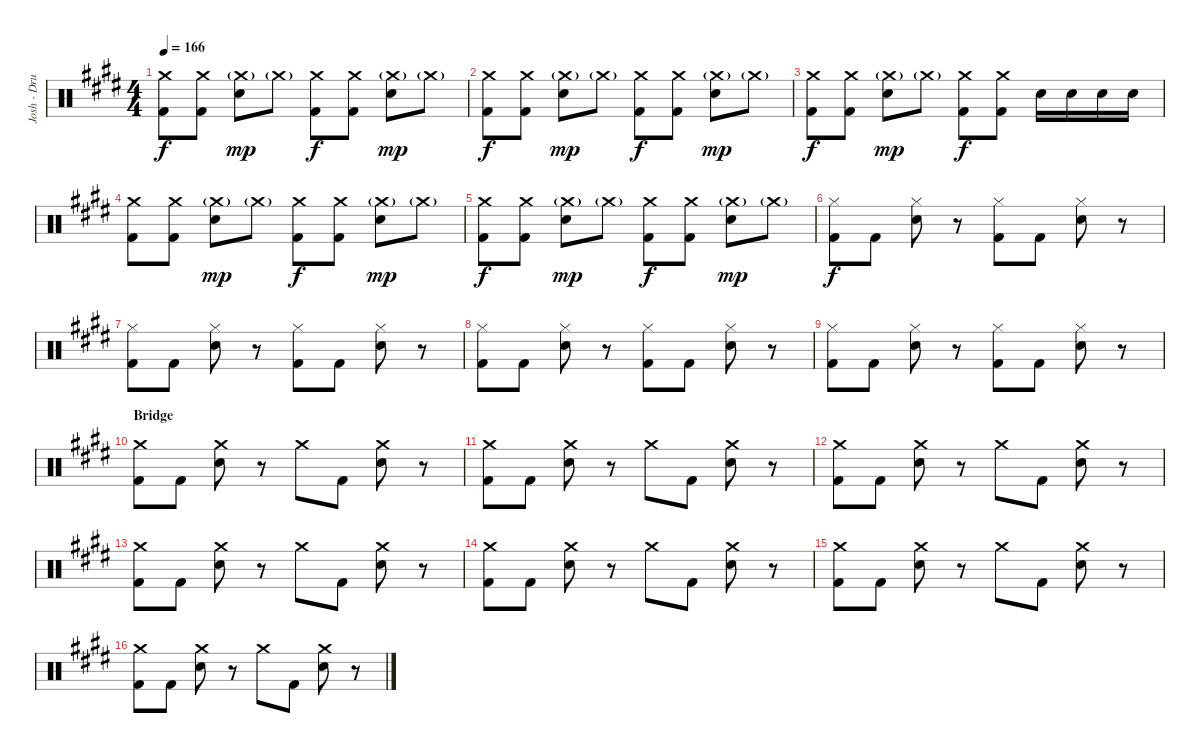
\track ("Josh - Drums" "Josh - Dru") {instrument percussion}
\staff {score}
\articulation defaults
\ts (4 4)
\tempo 166
\clef neutral
\ks e
("Crash medium (hit)" "Kick (hit) 2").8{dy f} ("Crash medium (hit)" "Kick (hit) 2").8 ("Crash medium (hit)"{g} "Electric Snare (hit)").8{dy mp} "Crash medium (hit)"{g}.8 ("Crash medium (hit)" "Kick (hit) 2").8{dy f} ("Crash medium (hit)" "Kick (hit) 2").8 ("Crash medium (hit)"{g} "Electric Snare (hit)").8{dy mp} "Crash medium (hit)"{g}.8 |
("Crash medium (hit)" "Kick (hit) 2").8{dy f} ("Crash medium (hit)" "Kick (hit) 2").8 ("Crash medium (hit)"{g} "Electric Snare (hit)").8{dy mp} "Crash medium (hit)"{g}.8 ("Crash medium (hit)" "Kick (hit) 2").8{dy f} ("Crash medium (hit)" "Kick (hit) 2").8 ("Crash medium (hit)"{g} "Electric Snare (hit)").8{dy mp} "Crash medium (hit)"{g}.8 |
("Crash medium (hit)" "Kick (hit) 2").8{dy f} ("Crash medium (hit)" "Kick (hit) 2").8 ("Crash medium (hit)"{g} "Electric Snare (hit)").8{dy mp} "Crash medium (hit)"{g}.8 ("Crash medium (hit)" "Kick (hit) 2").8{dy f} ("Crash medium (hit)" "Kick (hit) 2").8 "Electric Snare (hit)".16 "Electric Snare (hit)".16 "Electric Snare (hit)".16 "Electric Snare (hit)".16 |
("Crash medium (hit)" "Kick (hit) 2").8 ("Crash medium (hit)" "Kick (hit) 2").8 ("Crash medium (hit)"{g} "Electric Snare (hit)").8{dy mp} "Crash medium (hit)"{g}.8 ("Crash medium (hit)" "Kick (hit) 2").8{dy f} ("Crash medium (hit)" "Kick (hit) 2").8 ("Crash medium (hit)"{g} "Electric Snare (hit)").8{dy mp} "Crash medium (hit)"{g}.8 |
("Crash medium (hit)" "Kick (hit) 2").8{dy f} ("Crash medium (hit)" "Kick (hit) 2").8 ("Crash medium (hit)"{g} "Electric Snare (hit)").8{dy mp} "Crash medium (hit)"{g}.8 ("Crash medium (hit)" "Kick (hit) 2").8{dy f} ("Crash medium (hit)" "Kick (hit) 2").8 ("Crash medium (hit)"{g} "Electric Snare (hit)").8{dy mp} "Crash medium (hit)"{g}.8 |
("Hi-Hat (closed)" "Kick (hit) 2").8{dy f} "Kick (hit) 2".8 ("Hi-Hat (closed)" "Electric Snare (hit)").8 r.8 ("Hi-Hat (closed)" "Kick (hit) 2").8 "Kick (hit) 2".8 ("Hi-Hat (closed)" "Electric Snare (hit)").8 r.8 |
("Hi-Hat (closed)" "Kick (hit) 2").8 "Kick (hit) 2".8 ("Hi-Hat (closed)" "Electric Snare (hit)").8 r.8 ("Hi-Hat (closed)" "Kick (hit) 2").8 "Kick (hit) 2".8 ("Hi-Hat (closed)" "Electric Snare (hit)").8 r.8 |
("Hi-Hat (closed)" "Kick (hit) 2").8 "Kick (hit) 2".8 ("Hi-Hat (closed)" "Electric Snare (hit)").8 r.8 ("Hi-Hat (closed)" "Kick (hit) 2").8 "Kick (hit) 2".8 ("Hi-Hat (closed)" "Electric Snare (hit)").8 r.8 |
("Hi-Hat (closed)" "Kick (hit) 2").8 "Kick (hit) 2".8 ("Hi-Hat (closed)" "Electric Snare (hit)").8 r.8 ("Hi-Hat (closed)" "Kick (hit) 2").8 "Kick (hit) 2".8 ("Hi-Hat (closed)" "Electric Snare (hit)").8 r.8 |
\section ("" "Bridge")
("Crash medium (hit)" "Kick (hit) 2").8 "Kick (hit) 2".8 ("Crash medium (hit)" "Electric Snare (hit)").8 r.8 "Crash medium (hit)".8 "Kick (hit) 2".8 ("Crash medium (hit)" "Electric Snare (hit)").8 r.8 |
("Crash medium (hit)" "Kick (hit) 2").8 "Kick (hit) 2".8 ("Crash medium (hit)" "Electric Snare (hit)").8 r.8 "Crash medium (hit)".8 "Kick (hit) 2".8 ("Crash medium (hit)" "Electric Snare (hit)").8 r.8 |
("Crash medium (hit)" "Kick (hit) 2").8 "Kick (hit) 2".8 ("Crash medium (hit)" "Electric Snare (hit)").8 r.8 "Crash medium (hit)".8 "Kick (hit) 2".8 ("Crash medium (hit)" "Electric Snare (hit)").8 r.8 |
("Crash medium (hit)" "Kick (hit) 2").8 "Kick (hit) 2".8 ("Crash medium (hit)" "Electric Snare (hit)").8 r.8 "Crash medium (hit)".8 "Kick (hit) 2".8 ("Crash medium (hit)" "Electric Snare (hit)").8 r.8 |
("Crash medium (hit)" "Kick (hit) 2").8 "Kick (hit) 2".8 ("Crash medium (hit)" "Electric Snare (hit)").8 r.8 "Crash medium (hit)".8 "Kick (hit) 2".8 ("Crash medium (hit)" "Electric Snare (hit)").8 r.8 |
("Crash medium (hit)" "Kick (hit) 2").8 "Kick (hit) 2".8 ("Crash medium (hit)" "Electric Snare (hit)").8 r.8 "Crash medium (hit)".8 "Kick (hit) 2".8 ("Crash medium (hit)" "Electric Snare (hit)").8 r.8 |
("Crash medium (hit)" "Kick (hit) 2").8 "Kick (hit) 2".8 ("Crash medium (hit)" "Electric Snare (hit)").8 r.8 "Crash medium (hit)".8 "Kick (hit) 2".8 ("Crash medium (hit)" "Electric Snare (hit)").8 r.8
